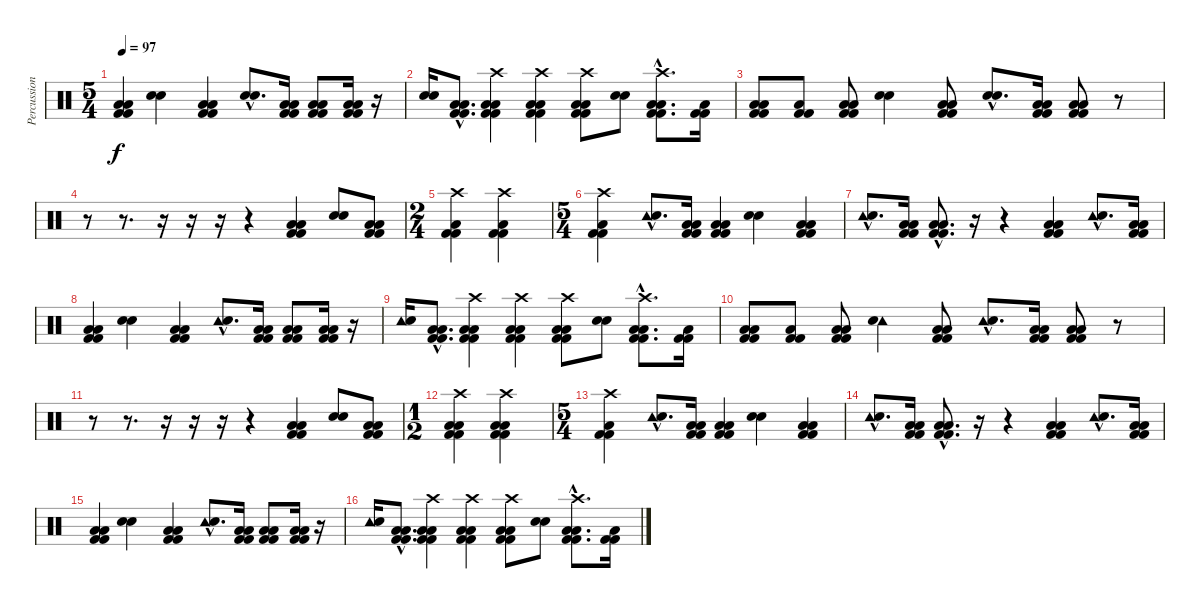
\track ("Percussions" "Percussion") {instrument percussion}
\staff {score}
\articulation defaults
\ts (5 4)
\tempo 97
\clef neutral
\ks c
("Kick (hit) 2" "Kick (hit) 2" "Low Floor Tom (hit)" "Low Floor Tom (hit)").4{dy f} ("Electric Snare (hit)" "Electric Snare (hit)").4 ("Kick (hit) 2" "Kick (hit) 2" "Low Floor Tom (hit)" "Low Floor Tom (hit)").4 ("Electric Snare (hit)"{hac} "Electric Snare (hit)"{hac}).8{d} ("Kick (hit) 2" "Kick (hit) 2" "Low Floor Tom (hit)" "Low Floor Tom (hit)").16 ("Kick (hit) 2" "Kick (hit) 2" "Low Floor Tom (hit)" "Low Floor Tom (hit)").8 ("Kick (hit) 2" "Kick (hit) 2" "Low Floor Tom (hit)" "Low Floor Tom (hit)").16 r.16 |
("Electric Snare (hit)" "Electric Snare (hit)").16 ("Kick (hit) 2"{hac} "Kick (hit) 2"{hac} "Low Floor Tom (hit)"{hac} "Low Floor Tom (hit)"{hac}).8{d} ("Kick (hit) 2" "Kick (hit) 2" "Low Floor Tom (hit)" "Low Floor Tom (hit)" "Crash high (hit)").4 ("Kick (hit) 2" "Kick (hit) 2" "Low Floor Tom (hit)" "Low Floor Tom (hit)" "Crash high (hit)").4 ("Kick (hit) 2" "Kick (hit) 2" "Low Floor Tom (hit)" "Low Floor Tom (hit)" "Crash high (hit)").8 ("Electric Snare (hit)" "Electric Snare (hit)").8 ("Kick (hit) 2"{hac} "Kick (hit) 2"{hac} "Low Floor Tom (hit)"{hac} "Low Floor Tom (hit)"{hac} "Crash high (hit)"{hac}).8{d} ("Kick (hit) 2" "Kick (hit) 2" "Low Floor Tom (hit)").16 |
("Kick (hit) 2" "Kick (hit) 2" "Low Floor Tom (hit)" "Low Floor Tom (hit)").8 ("Kick (hit) 2" "Kick (hit) 2" "Low Floor Tom (hit)").8 ("Kick (hit) 2" "Kick (hit) 2" "Low Floor Tom (hit)" "Low Floor Tom (hit)").8 ("Electric Snare (hit)" "Electric Snare (hit)").4 ("Kick (hit) 2" "Kick (hit) 2" "Low Floor Tom (hit)" "Low Floor Tom (hit)").8 ("Electric Snare (hit)"{hac} "Electric Snare (hit)"{hac}).8{d} ("Kick (hit) 2" "Kick (hit) 2" "Low Floor Tom (hit)" "Low Floor Tom (hit)").16 ("Kick (hit) 2" "Kick (hit) 2" "Low Floor Tom (hit)" "Low Floor Tom (hit)").8 r.8 |
r.8 r.8{d} r.16 r.16 r.16 r.4 ("Kick (hit) 2" "Kick (hit) 2" "Low Floor Tom (hit)" "Low Floor Tom (hit)").4 ("Electric Snare (hit)" "Electric Snare (hit)").8 ("Kick (hit) 2" "Kick (hit) 2" "Low Floor Tom (hit)" "Low Floor Tom (hit)").8 |
\ts (2 4)
("Kick (hit) 2" "Kick (hit) 2" "Low Floor Tom (hit)" "Crash high (hit)").4 ("Kick (hit) 2" "Kick (hit) 2" "Low Floor Tom (hit)" "Crash high (hit)").4 |
\ts (5 4)
("Kick (hit) 2" "Kick (hit) 2" "Low Floor Tom (hit)" "Crash high (hit)").4 ("Tambourine (hit)"{hac} "Electric Snare (hit)"{hac}).8{d} ("Kick (hit) 2" "Kick (hit) 2" "Low Floor Tom (hit)" "Low Floor Tom (hit)").16 ("Kick (hit) 2" "Kick (hit) 2" "Low Floor Tom (hit)" "Low Floor Tom (hit)").4 ("Electric Snare (hit)" "Electric Snare (hit)").4 ("Kick (hit) 2" "Kick (hit) 2" "Low Floor Tom (hit)" "Low Floor Tom (hit)").4 |
("Tambourine (hit)"{hac} "Electric Snare (hit)"{hac}).8{d} ("Kick (hit) 2" "Kick (hit) 2" "Low Floor Tom (hit)" "Low Floor Tom (hit)").16 ("Kick (hit) 2"{hac} "Kick (hit) 2"{hac} "Low Floor Tom (hit)"{hac} "Low Floor Tom (hit)"{hac}).8{d} r.16 r.4 ("Kick (hit) 2" "Kick (hit) 2" "Low Floor Tom (hit)" "Low Floor Tom (hit)").4 ("Tambourine (hit)"{hac} "Electric Snare (hit)"{hac}).8{d} ("Kick (hit) 2" "Kick (hit) 2" "Low Floor Tom (hit)" "Low Floor Tom (hit)").16 |
("Kick (hit) 2" "Kick (hit) 2" "Low Floor Tom (hit)" "Low Floor Tom (hit)").4 ("Electric Snare (hit)" "Electric Snare (hit)").4 ("Kick (hit) 2" "Kick (hit) 2" "Low Floor Tom (hit)" "Low Floor Tom (hit)").4 ("Tambourine (hit)"{hac} "Electric Snare (hit)"{hac}).8{d} ("Kick (hit) 2" "Kick (hit) 2" "Low Floor Tom (hit)" "Low Floor Tom (hit)").16 ("Kick (hit) 2" "Kick (hit) 2" "Low Floor Tom (hit)" "Low Floor Tom (hit)").8 ("Kick (hit) 2" "Kick (hit) 2" "Low Floor Tom (hit)" "Low Floor Tom (hit)").16 r.16 |
("Tambourine (hit)" "Electric Snare (hit)").16 ("Kick (hit) 2"{hac} "Kick (hit) 2"{hac} "Low Floor Tom (hit)"{hac} "Low Floor Tom (hit)"{hac}).8{d} ("Kick (hit) 2" "Kick (hit) 2" "Low Floor Tom (hit)" "Low Floor Tom (hit)" "Crash high (hit)").4 ("Kick (hit) 2" "Kick (hit) 2" "Low Floor Tom (hit)" "Low Floor Tom (hit)" "Crash high (hit)").4 ("Kick (hit) 2" "Kick (hit) 2" "Low Floor Tom (hit)" "Low Floor Tom (hit)" "Crash high (hit)").8 ("Electric Snare (hit)" "Electric Snare (hit)").8 ("Kick (hit) 2"{hac} "Kick (hit) 2"{hac} "Low Floor Tom (hit)"{hac} "Low Floor Tom (hit)"{hac} "Crash high (hit)"{hac}).8{d} ("Kick (hit) 2" "Kick (hit) 2" "Low Floor Tom (hit)").16 |
("Kick (hit) 2" "Kick (hit) 2" "Low Floor Tom (hit)" "Low Floor Tom (hit)").8 ("Kick (hit) 2" "Kick (hit) 2" "Low Floor Tom (hit)").8 ("Kick (hit) 2" "Kick (hit) 2" "Low Floor Tom (hit)" "Low Floor Tom (hit)").8 ("Tambourine (hit)" "Electric Snare (hit)").4 ("Kick (hit) 2" "Kick (hit) 2" "Low Floor Tom (hit)" "Low Floor Tom (hit)").8 ("Tambourine (hit)"{hac} "Electric Snare (hit)"{hac}).8{d} ("Kick (hit) 2" "Kick (hit) 2" "Low Floor Tom (hit)" "Low Floor Tom (hit)").16 ("Kick (hit) 2" "Kick (hit) 2" "Low Floor Tom (hit)" "Low Floor Tom (hit)").8 r.8 |
r.8 r.8{d} r.16 r.16 r.16 r.4 ("Kick (hit) 2" "Kick (hit) 2" "Low Floor Tom (hit)" "Low Floor Tom (hit)").4 ("Electric Snare (hit)" "Electric Snare (hit)").8 ("Kick (hit) 2" "Kick (hit) 2" "Low Floor Tom (hit)" "Low Floor Tom (hit)").8 |
\ts (1 2)
("Kick (hit) 2" "Kick (hit) 2" "Low Floor Tom (hit)" "Low Floor Tom (hit)" "Crash high (hit)").4 ("Kick (hit) 2" "Kick (hit) 2" "Low Floor Tom (hit)" "Low Floor Tom (hit)" "Crash high (hit)").4 |
\ts (5 4)
("Kick (hit) 2" "Kick (hit) 2" "Low Floor Tom (hit)" "Crash high (hit)").4 ("Tambourine (hit)"{hac} "Electric Snare (hit)"{hac}).8{d} ("Kick (hit) 2" "Kick (hit) 2" "Low Floor Tom (hit)" "Low Floor Tom (hit)").16 ("Kick (hit) 2" "Kick (hit) 2" "Low Floor Tom (hit)" "Low Floor Tom (hit)").4 ("Electric Snare (hit)" "Electric Snare (hit)").4 ("Kick (hit) 2" "Kick (hit) 2" "Low Floor Tom (hit)" "Low Floor Tom (hit)").4 |
("Tambourine (hit)"{hac} "Electric Snare (hit)"{hac}).8{d} ("Kick (hit) 2" "Kick (hit) 2" "Low Floor Tom (hit)" "Low Floor Tom (hit)").16 ("Kick (hit) 2"{hac} "Kick (hit) 2"{hac} "Low Floor Tom (hit)"{hac} "Low Floor Tom (hit)"{hac}).8{d} r.16 r.4 ("Kick (hit) 2" "Kick (hit) 2" "Low Floor Tom (hit)" "Low Floor Tom (hit)").4 ("Tambourine (hit)"{hac} "Electric Snare (hit)"{hac}).8{d} ("Kick (hit) 2" "Kick (hit) 2" "Low Floor Tom (hit)" "Low Floor Tom (hit)").16 |
("Kick (hit) 2" "Kick (hit) 2" "Low Floor Tom (hit)" "Low Floor Tom (hit)").4 ("Electric Snare (hit)" "Electric Snare (hit)").4 ("Kick (hit) 2" "Kick (hit) 2" "Low Floor Tom (hit)" "Low Floor Tom (hit)").4 ("Tambourine (hit)"{hac} "Electric Snare (hit)"{hac}).8{d} ("Kick (hit) 2" "Kick (hit) 2" "Low Floor Tom (hit)" "Low Floor Tom (hit)").16 ("Kick (hit) 2" "Kick (hit) 2" "Low Floor Tom (hit)" "Low Floor Tom (hit)").8 ("Kick (hit) 2" "Kick (hit) 2" "Low Floor Tom (hit)" "Low Floor Tom (hit)").16 r.16 |
("Tambourine (hit)" "Electric Snare (hit)").16 ("Kick (hit) 2"{hac} "Kick (hit) 2"{hac} "Low Floor Tom (hit)"{hac} "Low Floor Tom (hit)"{hac}).8{d} ("Kick (hit) 2" "Kick (hit) 2" "Low Floor Tom (hit)" "Low Floor Tom (hit)" "Crash high (hit)").4 ("Kick (hit) 2" "Kick (hit) 2" "Low Floor Tom (hit)" "Low Floor Tom (hit)" "Crash high (hit)").4 ("Kick (hit) 2" "Kick (hit) 2" "Low Floor Tom (hit)" "Low Floor Tom (hit)" "Crash high (hit)").8 ("Electric Snare (hit)" "Electric Snare (hit)").8 ("Kick (hit) 2"{hac} "Kick (hit) 2"{hac} "Low Floor Tom (hit)"{hac} "Low Floor Tom (hit)"{hac} "Crash high (hit)"{hac}).8{d} ("Kick (hit) 2" "Kick (hit) 2" "Low Floor Tom (hit)").16
